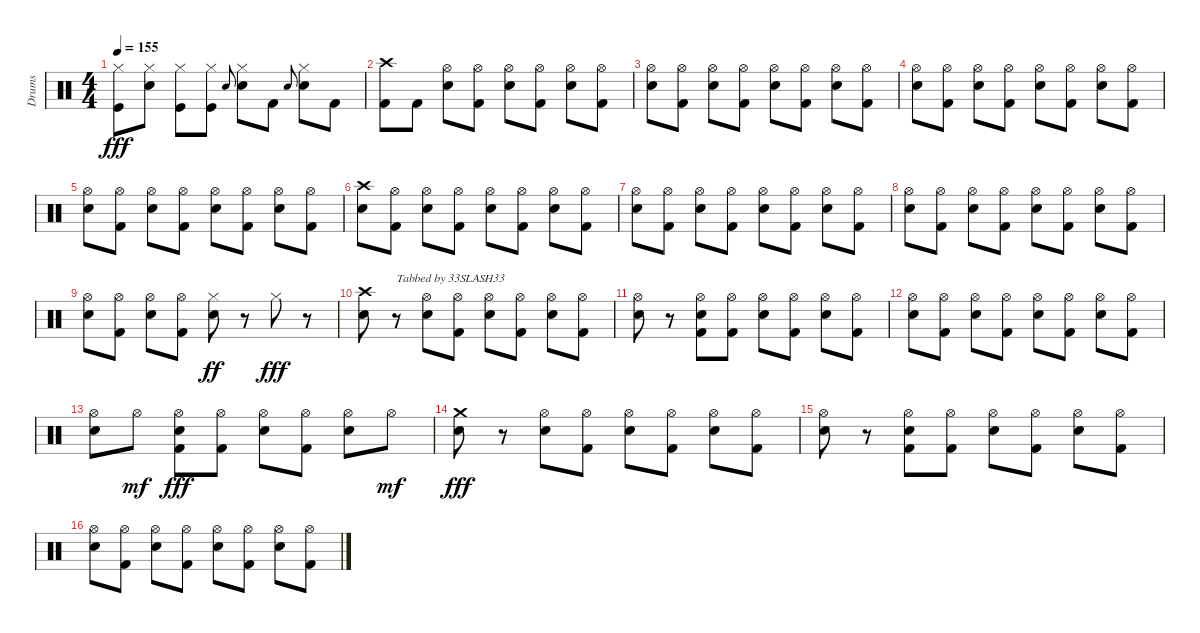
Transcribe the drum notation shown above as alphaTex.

\track ("Drums" "Drums") {instrument percussion}
\staff {score}
\articulation defaults
\ts (4 4)
\tempo 155
\clef neutral
\ks c
("Hi-Hat (closed)" "Kick (hit)").8{dy fff} ("Hi-Hat (closed)" "Snare (hit) 2").8 ("Hi-Hat (closed)" "Kick (hit)").8 ("Hi-Hat (closed)" "Kick (hit)").8 "Snare (hit) 2".8{gr onbeat} ("Hi-Hat (closed)" "Snare (hit) 2").8 "Kick (hit) 2".8 "Snare (hit) 2".8{gr onbeat} ("Hi-Hat (closed)" "Snare (hit) 2").8 "Kick (hit) 2".8 |
("Crash high (hit)" "Kick (hit) 2").8 "Kick (hit) 2".8 ("Hi-Hat (open)" "Snare (hit) 2").8 ("Hi-Hat (open)" "Kick (hit) 2").8 ("Hi-Hat (open)" "Snare (hit) 2").8 ("Hi-Hat (open)" "Kick (hit) 2").8 ("Hi-Hat (open)" "Snare (hit) 2").8 ("Hi-Hat (open)" "Kick (hit) 2").8 |
("Hi-Hat (open)" "Snare (hit) 2").8 ("Hi-Hat (open)" "Kick (hit) 2").8 ("Hi-Hat (open)" "Snare (hit) 2").8 ("Hi-Hat (open)" "Kick (hit) 2").8 ("Hi-Hat (open)" "Snare (hit) 2").8 ("Hi-Hat (open)" "Kick (hit) 2").8 ("Hi-Hat (open)" "Snare (hit) 2").8 ("Hi-Hat (open)" "Kick (hit) 2").8 |
("Hi-Hat (open)" "Snare (hit) 2").8 ("Hi-Hat (open)" "Kick (hit) 2").8 ("Hi-Hat (open)" "Snare (hit) 2").8 ("Hi-Hat (open)" "Kick (hit) 2").8 ("Hi-Hat (open)" "Snare (hit) 2").8 ("Hi-Hat (open)" "Kick (hit) 2").8 ("Hi-Hat (open)" "Snare (hit) 2").8 ("Hi-Hat (open)" "Kick (hit) 2").8 |
("Hi-Hat (open)" "Snare (hit) 2").8 ("Hi-Hat (open)" "Kick (hit) 2").8 ("Hi-Hat (open)" "Snare (hit) 2").8 ("Hi-Hat (open)" "Kick (hit) 2").8 ("Hi-Hat (open)" "Snare (hit) 2").8 ("Hi-Hat (open)" "Kick (hit) 2").8 ("Hi-Hat (open)" "Snare (hit) 2").8 ("Hi-Hat (open)" "Kick (hit) 2").8 |
("Crash high (hit)" "Snare (hit) 2").8 ("Hi-Hat (open)" "Kick (hit) 2").8 ("Hi-Hat (open)" "Snare (hit) 2").8 ("Hi-Hat (open)" "Kick (hit) 2").8 ("Hi-Hat (open)" "Snare (hit) 2").8 ("Hi-Hat (open)" "Kick (hit) 2").8 ("Hi-Hat (open)" "Snare (hit) 2").8 ("Hi-Hat (open)" "Kick (hit) 2").8 |
("Hi-Hat (open)" "Snare (hit) 2").8 ("Hi-Hat (open)" "Kick (hit) 2").8 ("Hi-Hat (open)" "Snare (hit) 2").8 ("Hi-Hat (open)" "Kick (hit) 2").8 ("Hi-Hat (open)" "Snare (hit) 2").8 ("Hi-Hat (open)" "Kick (hit) 2").8 ("Hi-Hat (open)" "Snare (hit) 2").8 ("Hi-Hat (open)" "Kick (hit) 2").8 |
("Hi-Hat (open)" "Snare (hit) 2").8 ("Hi-Hat (open)" "Kick (hit) 2").8 ("Hi-Hat (open)" "Snare (hit) 2").8 ("Hi-Hat (open)" "Kick (hit) 2").8 ("Hi-Hat (open)" "Snare (hit) 2").8 ("Hi-Hat (open)" "Kick (hit) 2").8 ("Hi-Hat (open)" "Snare (hit) 2").8 ("Hi-Hat (open)" "Kick (hit) 2").8 |
("Hi-Hat (open)" "Snare (hit) 2").8 ("Hi-Hat (open)" "Kick (hit) 2").8 ("Hi-Hat (open)" "Snare (hit) 2").8 ("Hi-Hat (open)" "Kick (hit) 2").8 ("Hi-Hat (closed)" "Snare (hit) 2").8{dy ff} r.8 "Hi-Hat (closed)".8{dy fff} r.8 |
("Crash high (hit)" "Snare (hit) 2").8 r.8{txt "Tabbed by 33SLASH33"} ("Hi-Hat (open)" "Snare (hit) 2").8 ("Hi-Hat (open)" "Kick (hit) 2").8 ("Hi-Hat (open)" "Snare (hit) 2").8 ("Hi-Hat (open)" "Kick (hit) 2").8 ("Hi-Hat (open)" "Snare (hit) 2").8 ("Hi-Hat (open)" "Kick (hit) 2").8 |
("Hi-Hat (open)" "Snare (hit) 2").8 r.8 ("Hi-Hat (open)" "Snare (hit) 2" "Kick (hit) 2").8 ("Hi-Hat (open)" "Kick (hit) 2").8 ("Hi-Hat (open)" "Snare (hit) 2").8 ("Hi-Hat (open)" "Kick (hit) 2").8 ("Hi-Hat (open)" "Snare (hit) 2").8 ("Hi-Hat (open)" "Kick (hit) 2").8 |
("Hi-Hat (open)" "Snare (hit) 2").8 ("Hi-Hat (open)" "Kick (hit) 2").8 ("Hi-Hat (open)" "Snare (hit) 2").8 ("Hi-Hat (open)" "Kick (hit) 2").8 ("Hi-Hat (open)" "Snare (hit) 2").8 ("Hi-Hat (open)" "Kick (hit) 2").8 ("Hi-Hat (open)" "Snare (hit) 2").8 ("Hi-Hat (open)" "Kick (hit) 2").8 |
("Hi-Hat (open)" "Snare (hit) 2").8 "Hi-Hat (open)".8{dy mf} ("Hi-Hat (open)" "Snare (hit) 2" "Kick (hit) 2").8{dy fff} ("Hi-Hat (open)" "Kick (hit) 2").8 ("Hi-Hat (open)" "Snare (hit) 2").8 ("Hi-Hat (open)" "Kick (hit) 2").8 ("Hi-Hat (open)" "Snare (hit) 2").8 "Hi-Hat (open)".8{dy mf} |
("Crash medium (hit)" "Snare (hit) 2").8{dy fff} r.8 ("Hi-Hat (open)" "Snare (hit) 2").8 ("Hi-Hat (open)" "Kick (hit) 2").8 ("Hi-Hat (open)" "Snare (hit) 2").8 ("Hi-Hat (open)" "Kick (hit) 2").8 ("Hi-Hat (open)" "Snare (hit) 2").8 ("Hi-Hat (open)" "Kick (hit) 2").8 |
("Hi-Hat (open)" "Snare (hit) 2").8 r.8 ("Hi-Hat (open)" "Snare (hit) 2" "Kick (hit) 2").8 ("Hi-Hat (open)" "Kick (hit) 2").8 ("Hi-Hat (open)" "Snare (hit) 2").8 ("Hi-Hat (open)" "Kick (hit) 2").8 ("Hi-Hat (open)" "Snare (hit) 2").8 ("Hi-Hat (open)" "Kick (hit) 2").8 |
("Hi-Hat (open)" "Snare (hit) 2").8 ("Hi-Hat (open)" "Kick (hit) 2").8 ("Hi-Hat (open)" "Snare (hit) 2").8 ("Hi-Hat (open)" "Kick (hit) 2").8 ("Hi-Hat (open)" "Snare (hit) 2").8 ("Hi-Hat (open)" "Kick (hit) 2").8 ("Hi-Hat (open)" "Snare (hit) 2").8 ("Hi-Hat (open)" "Kick (hit) 2").8
